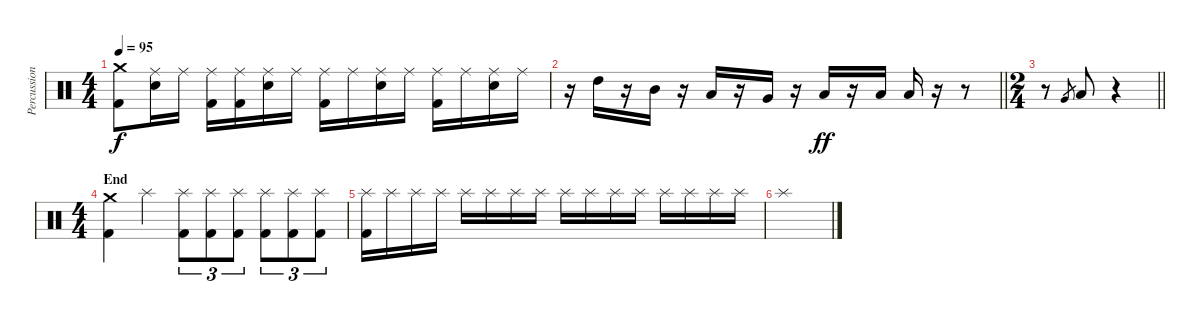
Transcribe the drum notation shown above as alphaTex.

\track ("Percussion" "Percussion") {instrument percussion}
\staff {score}
\articulation defaults
\ts (4 4)
\section ("" "")
\tempo 95
\clef neutral
\ks c
("Crash medium (hit)" "Kick (hit) 2").8{dy f} ("Ride (middle)" "Snare (hit) 2").16 "Ride (middle)".16 ("Ride (middle)" "Kick (hit) 2").16 ("Ride (middle)" "Kick (hit) 2").16 ("Ride (middle)" "Snare (hit) 2").16 "Ride (middle)".16 ("Ride (middle)" "Kick (hit) 2").16 "Ride (middle)".16 ("Ride (middle)" "Snare (hit) 2").16 "Ride (middle)".16 ("Ride (middle)" "Kick (hit) 2").16 "Ride (middle)".16 ("Ride (middle)" "Snare (hit) 2").16 "Ride (middle)".16 |
\barLineRight lightlight
r.16 "High Tom (hit)".16 r.16 "Mid Tom (hit)".16 r.16 "Low Tom (hit)".16 r.16 "Very Low Tom (hit)".16 r.16 "Low Floor Tom (hit)".16{dy ff} r.16 "Low Floor Tom (hit)".16 "Low Floor Tom (hit)".16 r.16 r.8 |
\ts (2 4)
\barLineRight lightlight
r.8 "Very Low Tom (hit)".8{gr} "Low Tom (hit)".8 r.4 |
\ts (4 4)
\section ("" "End")
("Crash medium (hit)" "Kick (hit) 2").4 "Splash (hit)".4 ("Splash (hit)" "Kick (hit) 2").8{tu (3 2)} ("Splash (hit)" "Kick (hit) 2").8{tu (3 2)} ("Splash (hit)" "Kick (hit) 2").8{tu (3 2)} ("Splash (hit)" "Kick (hit) 2").8{tu (3 2)} ("Splash (hit)" "Kick (hit) 2").8{tu (3 2)} ("Splash (hit)" "Kick (hit) 2").8{tu (3 2)} |
("Splash (hit)" "Kick (hit) 2").16 "Splash (hit)".16 "Splash (hit)".16 "Splash (hit)".16 "Splash (hit)".16 "Splash (hit)".16 "Splash (hit)".16 "Splash (hit)".16 "Splash (hit)".16 "Splash (hit)".16 "Splash (hit)".16 "Splash (hit)".16 "Splash (hit)".16 "Splash (hit)".16 "Splash (hit)".16 "Splash (hit)".16 |
"Splash (hit)".1
